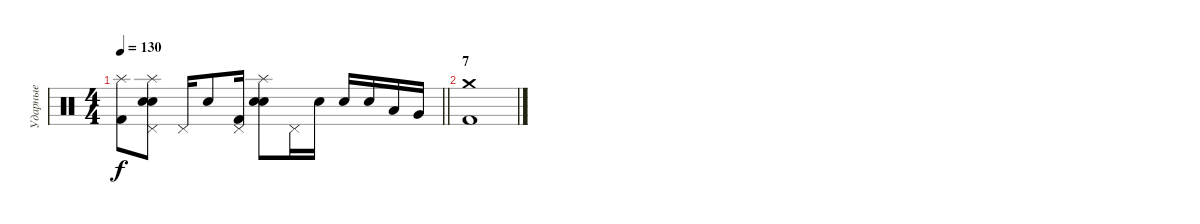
\track ("Ударные" "Ударные") {instrument percussion}
\staff {score}
\articulation defaults
\ts (4 4)
\tempo 130
\clef neutral
\barLineRight lightlight
\ks c
("Splash (hit)" "Kick (hit) 2").8{dy f} ("Splash (hit)" "Pedal Hi-Hat (hit)" "Electric Snare (hit)" "Snare (hit) 2").8 "Pedal Hi-Hat (hit)".16 "Electric Snare (hit)".8 ("Pedal Hi-Hat (hit)" "Kick (hit) 2").16 ("Splash (hit)" "Electric Snare (hit)" "Snare (hit) 2").8 "Pedal Hi-Hat (hit)".16 "Electric Snare (hit)".16 "Electric Snare (hit)".16 "Electric Snare (hit)".16 "Low Tom (hit)".16 "Very Low Tom (hit)".16 |
\section ("" "7")
("Crash medium (hit)" "Kick (hit) 2").1
